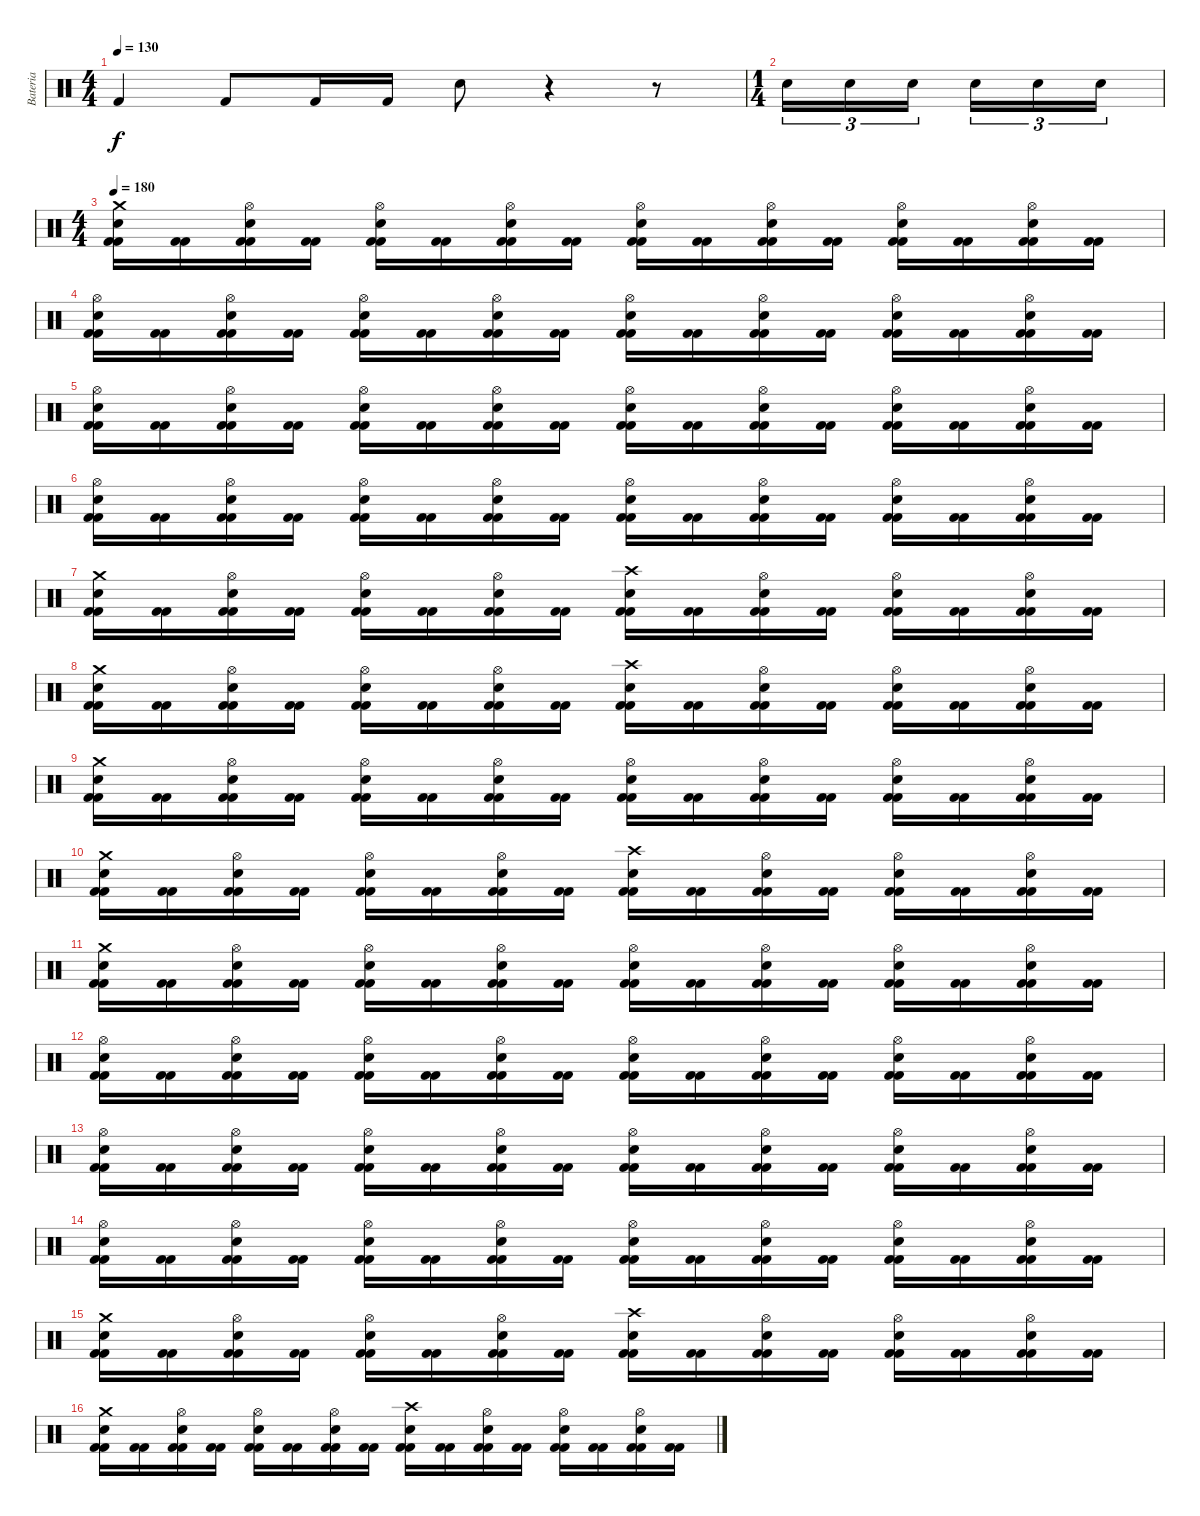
\track ("Bateria" "Bateria") {instrument percussion}
\staff {score}
\articulation defaults
\ts (4 4)
\tempo 130
\clef neutral
\ks c "Kick (hit) 2".4{dy f} "Kick (hit) 2".8 "Kick (hit) 2".16 "Kick (hit) 2".16 "Snare (hit) 2".8
r.4 r.8 |
\ts (1 4)
"Snare (hit) 2".16{tu (3 2)} "Snare (hit) 2".16{tu (3 2)} "Snare (hit) 2".16{tu (3 2)} "Snare (hit) 2".16{tu (3 2)} "Snare (hit) 2".16{tu (3 2)} "Snare (hit) 2".16{tu (3 2)} |
\ts (4 4)
\tempo 180
("Kick (hit) 2" "Kick (hit) 2" "Snare (hit) 2" "Crash medium (hit)").16 ("Kick (hit) 2" "Kick (hit) 2").16 ("Kick (hit) 2" "Kick (hit) 2" "Snare (hit) 2" "Hi-Hat (open)").16 ("Kick (hit) 2" "Kick (hit) 2").16 ("Kick (hit) 2" "Kick (hit) 2" "Snare (hit) 2" "Hi-Hat (open)").16 ("Kick (hit) 2" "Kick (hit) 2").16 ("Kick (hit) 2" "Kick (hit) 2" "Snare (hit) 2" "Hi-Hat (open)").16 ("Kick (hit) 2" "Kick (hit) 2").16 ("Kick (hit) 2" "Kick (hit) 2" "Snare (hit) 2" "Hi-Hat (open)").16 ("Kick (hit) 2" "Kick (hit) 2").16 ("Kick (hit) 2" "Kick (hit) 2" "Snare (hit) 2" "Hi-Hat (open)").16 ("Kick (hit) 2" "Kick (hit) 2").16 ("Kick (hit) 2" "Kick (hit) 2" "Snare (hit) 2" "Hi-Hat (open)").16 ("Kick (hit) 2" "Kick (hit) 2").16 ("Kick (hit) 2" "Kick (hit) 2" "Snare (hit) 2" "Hi-Hat (open)").16 ("Kick (hit) 2" "Kick (hit) 2").16 |
("Kick (hit) 2" "Kick (hit) 2" "Snare (hit) 2" "Hi-Hat (open)").16 ("Kick (hit) 2" "Kick (hit) 2").16 ("Kick (hit) 2" "Kick (hit) 2" "Snare (hit) 2" "Hi-Hat (open)").16 ("Kick (hit) 2" "Kick (hit) 2").16 ("Kick (hit) 2" "Kick (hit) 2" "Snare (hit) 2" "Hi-Hat (open)").16 ("Kick (hit) 2" "Kick (hit) 2").16 ("Kick (hit) 2" "Kick (hit) 2" "Snare (hit) 2" "Hi-Hat (open)").16 ("Kick (hit) 2" "Kick (hit) 2").16 ("Kick (hit) 2" "Kick (hit) 2" "Snare (hit) 2" "Hi-Hat (open)").16 ("Kick (hit) 2" "Kick (hit) 2").16 ("Kick (hit) 2" "Kick (hit) 2" "Snare (hit) 2" "Hi-Hat (open)").16 ("Kick (hit) 2" "Kick (hit) 2").16 ("Kick (hit) 2" "Kick (hit) 2" "Snare (hit) 2" "Hi-Hat (open)").16 ("Kick (hit) 2" "Kick (hit) 2").16 ("Kick (hit) 2" "Kick (hit) 2" "Snare (hit) 2" "Hi-Hat (open)").16 ("Kick (hit) 2" "Kick (hit) 2").16 |
("Kick (hit) 2" "Kick (hit) 2" "Snare (hit) 2" "Hi-Hat (open)").16 ("Kick (hit) 2" "Kick (hit) 2").16 ("Kick (hit) 2" "Kick (hit) 2" "Snare (hit) 2" "Hi-Hat (open)").16 ("Kick (hit) 2" "Kick (hit) 2").16 ("Kick (hit) 2" "Kick (hit) 2" "Snare (hit) 2" "Hi-Hat (open)").16 ("Kick (hit) 2" "Kick (hit) 2").16 ("Kick (hit) 2" "Kick (hit) 2" "Snare (hit) 2" "Hi-Hat (open)").16 ("Kick (hit) 2" "Kick (hit) 2").16 ("Kick (hit) 2" "Kick (hit) 2" "Snare (hit) 2" "Hi-Hat (open)").16 ("Kick (hit) 2" "Kick (hit) 2").16 ("Kick (hit) 2" "Kick (hit) 2" "Snare (hit) 2" "Hi-Hat (open)").16 ("Kick (hit) 2" "Kick (hit) 2").16 ("Kick (hit) 2" "Kick (hit) 2" "Snare (hit) 2" "Hi-Hat (open)").16 ("Kick (hit) 2" "Kick (hit) 2").16 ("Kick (hit) 2" "Kick (hit) 2" "Snare (hit) 2" "Hi-Hat (open)").16 ("Kick (hit) 2" "Kick (hit) 2").16 |
("Kick (hit) 2" "Kick (hit) 2" "Snare (hit) 2" "Hi-Hat (open)").16 ("Kick (hit) 2" "Kick (hit) 2").16 ("Kick (hit) 2" "Kick (hit) 2" "Snare (hit) 2" "Hi-Hat (open)").16 ("Kick (hit) 2" "Kick (hit) 2").16 ("Kick (hit) 2" "Kick (hit) 2" "Snare (hit) 2" "Hi-Hat (open)").16 ("Kick (hit) 2" "Kick (hit) 2").16 ("Kick (hit) 2" "Kick (hit) 2" "Snare (hit) 2" "Hi-Hat (open)").16 ("Kick (hit) 2" "Kick (hit) 2").16 ("Kick (hit) 2" "Kick (hit) 2" "Snare (hit) 2" "Hi-Hat (open)").16 ("Kick (hit) 2" "Kick (hit) 2").16 ("Kick (hit) 2" "Kick (hit) 2" "Snare (hit) 2" "Hi-Hat (open)").16 ("Kick (hit) 2" "Kick (hit) 2").16 ("Kick (hit) 2" "Kick (hit) 2" "Snare (hit) 2" "Hi-Hat (open)").16 ("Kick (hit) 2" "Kick (hit) 2").16 ("Kick (hit) 2" "Kick (hit) 2" "Snare (hit) 2" "Hi-Hat (open)").16 ("Kick (hit) 2" "Kick (hit) 2").16 |
("Kick (hit) 2" "Kick (hit) 2" "Snare (hit) 2" "Crash medium (hit)").16 ("Kick (hit) 2" "Kick (hit) 2").16 ("Kick (hit) 2" "Kick (hit) 2" "Snare (hit) 2" "Hi-Hat (open)").16 ("Kick (hit) 2" "Kick (hit) 2").16 ("Kick (hit) 2" "Kick (hit) 2" "Snare (hit) 2" "Hi-Hat (open)").16 ("Kick (hit) 2" "Kick (hit) 2").16 ("Kick (hit) 2" "Kick (hit) 2" "Snare (hit) 2" "Hi-Hat (open)").16 ("Kick (hit) 2" "Kick (hit) 2").16 ("Kick (hit) 2" "Kick (hit) 2" "Snare (hit) 2" "Crash high (hit)").16 ("Kick (hit) 2" "Kick (hit) 2").16 ("Kick (hit) 2" "Kick (hit) 2" "Snare (hit) 2" "Hi-Hat (open)").16 ("Kick (hit) 2" "Kick (hit) 2").16 ("Kick (hit) 2" "Kick (hit) 2" "Snare (hit) 2" "Hi-Hat (open)").16 ("Kick (hit) 2" "Kick (hit) 2").16 ("Kick (hit) 2" "Kick (hit) 2" "Snare (hit) 2" "Hi-Hat (open)").16 ("Kick (hit) 2" "Kick (hit) 2").16 |
("Kick (hit) 2" "Kick (hit) 2" "Snare (hit) 2" "Crash medium (hit)").16 ("Kick (hit) 2" "Kick (hit) 2").16 ("Kick (hit) 2" "Kick (hit) 2" "Snare (hit) 2" "Hi-Hat (open)").16 ("Kick (hit) 2" "Kick (hit) 2").16 ("Kick (hit) 2" "Kick (hit) 2" "Snare (hit) 2" "Hi-Hat (open)").16 ("Kick (hit) 2" "Kick (hit) 2").16 ("Kick (hit) 2" "Kick (hit) 2" "Snare (hit) 2" "Hi-Hat (open)").16 ("Kick (hit) 2" "Kick (hit) 2").16 ("Kick (hit) 2" "Kick (hit) 2" "Snare (hit) 2" "Crash high (hit)").16 ("Kick (hit) 2" "Kick (hit) 2").16 ("Kick (hit) 2" "Kick (hit) 2" "Snare (hit) 2" "Hi-Hat (open)").16 ("Kick (hit) 2" "Kick (hit) 2").16 ("Kick (hit) 2" "Kick (hit) 2" "Snare (hit) 2" "Hi-Hat (open)").16 ("Kick (hit) 2" "Kick (hit) 2").16 ("Kick (hit) 2" "Kick (hit) 2" "Snare (hit) 2" "Hi-Hat (open)").16 ("Kick (hit) 2" "Kick (hit) 2").16 |
("Kick (hit) 2" "Kick (hit) 2" "Snare (hit) 2" "Crash medium (hit)").16 ("Kick (hit) 2" "Kick (hit) 2").16 ("Kick (hit) 2" "Kick (hit) 2" "Snare (hit) 2" "Hi-Hat (open)").16 ("Kick (hit) 2" "Kick (hit) 2").16 ("Kick (hit) 2" "Kick (hit) 2" "Snare (hit) 2" "Hi-Hat (open)").16 ("Kick (hit) 2" "Kick (hit) 2").16 ("Kick (hit) 2" "Kick (hit) 2" "Snare (hit) 2" "Hi-Hat (open)").16 ("Kick (hit) 2" "Kick (hit) 2").16 ("Kick (hit) 2" "Kick (hit) 2" "Snare (hit) 2" "Hi-Hat (open)").16 ("Kick (hit) 2" "Kick (hit) 2").16 ("Kick (hit) 2" "Kick (hit) 2" "Snare (hit) 2" "Hi-Hat (open)").16 ("Kick (hit) 2" "Kick (hit) 2").16 ("Kick (hit) 2" "Kick (hit) 2" "Snare (hit) 2" "Hi-Hat (open)").16 ("Kick (hit) 2" "Kick (hit) 2").16 ("Kick (hit) 2" "Kick (hit) 2" "Snare (hit) 2" "Hi-Hat (open)").16 ("Kick (hit) 2" "Kick (hit) 2").16 |
("Kick (hit) 2" "Kick (hit) 2" "Snare (hit) 2" "Crash medium (hit)").16 ("Kick (hit) 2" "Kick (hit) 2").16 ("Kick (hit) 2" "Kick (hit) 2" "Snare (hit) 2" "Hi-Hat (open)").16 ("Kick (hit) 2" "Kick (hit) 2").16 ("Kick (hit) 2" "Kick (hit) 2" "Snare (hit) 2" "Hi-Hat (open)").16 ("Kick (hit) 2" "Kick (hit) 2").16 ("Kick (hit) 2" "Kick (hit) 2" "Snare (hit) 2" "Hi-Hat (open)").16 ("Kick (hit) 2" "Kick (hit) 2").16 ("Kick (hit) 2" "Kick (hit) 2" "Snare (hit) 2" "Crash high (hit)").16 ("Kick (hit) 2" "Kick (hit) 2").16 ("Kick (hit) 2" "Kick (hit) 2" "Snare (hit) 2" "Hi-Hat (open)").16 ("Kick (hit) 2" "Kick (hit) 2").16 ("Kick (hit) 2" "Kick (hit) 2" "Snare (hit) 2" "Hi-Hat (open)").16 ("Kick (hit) 2" "Kick (hit) 2").16 ("Kick (hit) 2" "Kick (hit) 2" "Snare (hit) 2" "Hi-Hat (open)").16 ("Kick (hit) 2" "Kick (hit) 2").16 |
("Kick (hit) 2" "Kick (hit) 2" "Snare (hit) 2" "Crash medium (hit)").16 ("Kick (hit) 2" "Kick (hit) 2").16 ("Kick (hit) 2" "Kick (hit) 2" "Snare (hit) 2" "Hi-Hat (open)").16 ("Kick (hit) 2" "Kick (hit) 2").16 ("Kick (hit) 2" "Kick (hit) 2" "Snare (hit) 2" "Hi-Hat (open)").16 ("Kick (hit) 2" "Kick (hit) 2").16 ("Kick (hit) 2" "Kick (hit) 2" "Snare (hit) 2" "Hi-Hat (open)").16 ("Kick (hit) 2" "Kick (hit) 2").16 ("Kick (hit) 2" "Kick (hit) 2" "Snare (hit) 2" "Hi-Hat (open)").16 ("Kick (hit) 2" "Kick (hit) 2").16 ("Kick (hit) 2" "Kick (hit) 2" "Snare (hit) 2" "Hi-Hat (open)").16 ("Kick (hit) 2" "Kick (hit) 2").16 ("Kick (hit) 2" "Kick (hit) 2" "Snare (hit) 2" "Hi-Hat (open)").16 ("Kick (hit) 2" "Kick (hit) 2").16 ("Kick (hit) 2" "Kick (hit) 2" "Snare (hit) 2" "Hi-Hat (open)").16 ("Kick (hit) 2" "Kick (hit) 2").16 |
("Kick (hit) 2" "Kick (hit) 2" "Snare (hit) 2" "Hi-Hat (open)").16 ("Kick (hit) 2" "Kick (hit) 2").16 ("Kick (hit) 2" "Kick (hit) 2" "Snare (hit) 2" "Hi-Hat (open)").16 ("Kick (hit) 2" "Kick (hit) 2").16 ("Kick (hit) 2" "Kick (hit) 2" "Snare (hit) 2" "Hi-Hat (open)").16 ("Kick (hit) 2" "Kick (hit) 2").16 ("Kick (hit) 2" "Kick (hit) 2" "Snare (hit) 2" "Hi-Hat (open)").16 ("Kick (hit) 2" "Kick (hit) 2").16 ("Kick (hit) 2" "Kick (hit) 2" "Snare (hit) 2" "Hi-Hat (open)").16 ("Kick (hit) 2" "Kick (hit) 2").16 ("Kick (hit) 2" "Kick (hit) 2" "Snare (hit) 2" "Hi-Hat (open)").16 ("Kick (hit) 2" "Kick (hit) 2").16 ("Kick (hit) 2" "Kick (hit) 2" "Snare (hit) 2" "Hi-Hat (open)").16 ("Kick (hit) 2" "Kick (hit) 2").16 ("Kick (hit) 2" "Kick (hit) 2" "Snare (hit) 2" "Hi-Hat (open)").16 ("Kick (hit) 2" "Kick (hit) 2").16 |
("Kick (hit) 2" "Kick (hit) 2" "Snare (hit) 2" "Hi-Hat (open)").16 ("Kick (hit) 2" "Kick (hit) 2").16 ("Kick (hit) 2" "Kick (hit) 2" "Snare (hit) 2" "Hi-Hat (open)").16 ("Kick (hit) 2" "Kick (hit) 2").16 ("Kick (hit) 2" "Kick (hit) 2" "Snare (hit) 2" "Hi-Hat (open)").16 ("Kick (hit) 2" "Kick (hit) 2").16 ("Kick (hit) 2" "Kick (hit) 2" "Snare (hit) 2" "Hi-Hat (open)").16 ("Kick (hit) 2" "Kick (hit) 2").16 ("Kick (hit) 2" "Kick (hit) 2" "Snare (hit) 2" "Hi-Hat (open)").16 ("Kick (hit) 2" "Kick (hit) 2").16 ("Kick (hit) 2" "Kick (hit) 2" "Snare (hit) 2" "Hi-Hat (open)").16 ("Kick (hit) 2" "Kick (hit) 2").16 ("Kick (hit) 2" "Kick (hit) 2" "Snare (hit) 2" "Hi-Hat (open)").16 ("Kick (hit) 2" "Kick (hit) 2").16 ("Kick (hit) 2" "Kick (hit) 2" "Snare (hit) 2" "Hi-Hat (open)").16 ("Kick (hit) 2" "Kick (hit) 2").16 |
("Kick (hit) 2" "Kick (hit) 2" "Snare (hit) 2" "Hi-Hat (open)").16 ("Kick (hit) 2" "Kick (hit) 2").16 ("Kick (hit) 2" "Kick (hit) 2" "Snare (hit) 2" "Hi-Hat (open)").16 ("Kick (hit) 2" "Kick (hit) 2").16 ("Kick (hit) 2" "Kick (hit) 2" "Snare (hit) 2" "Hi-Hat (open)").16 ("Kick (hit) 2" "Kick (hit) 2").16 ("Kick (hit) 2" "Kick (hit) 2" "Snare (hit) 2" "Hi-Hat (open)").16 ("Kick (hit) 2" "Kick (hit) 2").16 ("Kick (hit) 2" "Kick (hit) 2" "Snare (hit) 2" "Hi-Hat (open)").16 ("Kick (hit) 2" "Kick (hit) 2").16 ("Kick (hit) 2" "Kick (hit) 2" "Snare (hit) 2" "Hi-Hat (open)").16 ("Kick (hit) 2" "Kick (hit) 2").16 ("Kick (hit) 2" "Kick (hit) 2" "Snare (hit) 2" "Hi-Hat (open)").16 ("Kick (hit) 2" "Kick (hit) 2").16 ("Kick (hit) 2" "Kick (hit) 2" "Snare (hit) 2" "Hi-Hat (open)").16 ("Kick (hit) 2" "Kick (hit) 2").16 |
("Kick (hit) 2" "Kick (hit) 2" "Snare (hit) 2" "Crash medium (hit)").16 ("Kick (hit) 2" "Kick (hit) 2").16 ("Kick (hit) 2" "Kick (hit) 2" "Snare (hit) 2" "Hi-Hat (open)").16 ("Kick (hit) 2" "Kick (hit) 2").16 ("Kick (hit) 2" "Kick (hit) 2" "Snare (hit) 2" "Hi-Hat (open)").16 ("Kick (hit) 2" "Kick (hit) 2").16 ("Kick (hit) 2" "Kick (hit) 2" "Snare (hit) 2" "Hi-Hat (open)").16 ("Kick (hit) 2" "Kick (hit) 2").16 ("Kick (hit) 2" "Kick (hit) 2" "Snare (hit) 2" "Crash high (hit)").16 ("Kick (hit) 2" "Kick (hit) 2").16 ("Kick (hit) 2" "Kick (hit) 2" "Snare (hit) 2" "Hi-Hat (open)").16 ("Kick (hit) 2" "Kick (hit) 2").16 ("Kick (hit) 2" "Kick (hit) 2" "Snare (hit) 2" "Hi-Hat (open)").16 ("Kick (hit) 2" "Kick (hit) 2").16 ("Kick (hit) 2" "Kick (hit) 2" "Snare (hit) 2" "Hi-Hat (open)").16 ("Kick (hit) 2" "Kick (hit) 2").16 |
("Kick (hit) 2" "Kick (hit) 2" "Snare (hit) 2" "Crash medium (hit)").16 ("Kick (hit) 2" "Kick (hit) 2").16 ("Kick (hit) 2" "Kick (hit) 2" "Snare (hit) 2" "Hi-Hat (open)").16 ("Kick (hit) 2" "Kick (hit) 2").16 ("Kick (hit) 2" "Kick (hit) 2" "Snare (hit) 2" "Hi-Hat (open)").16 ("Kick (hit) 2" "Kick (hit) 2").16 ("Kick (hit) 2" "Kick (hit) 2" "Snare (hit) 2" "Hi-Hat (open)").16 ("Kick (hit) 2" "Kick (hit) 2").16 ("Kick (hit) 2" "Kick (hit) 2" "Snare (hit) 2" "Crash high (hit)").16 ("Kick (hit) 2" "Kick (hit) 2").16 ("Kick (hit) 2" "Kick (hit) 2" "Snare (hit) 2" "Hi-Hat (open)").16 ("Kick (hit) 2" "Kick (hit) 2").16 ("Kick (hit) 2" "Kick (hit) 2" "Snare (hit) 2" "Hi-Hat (open)").16 ("Kick (hit) 2" "Kick (hit) 2").16 ("Kick (hit) 2" "Kick (hit) 2" "Snare (hit) 2" "Hi-Hat (open)").16 ("Kick (hit) 2" "Kick (hit) 2").16
